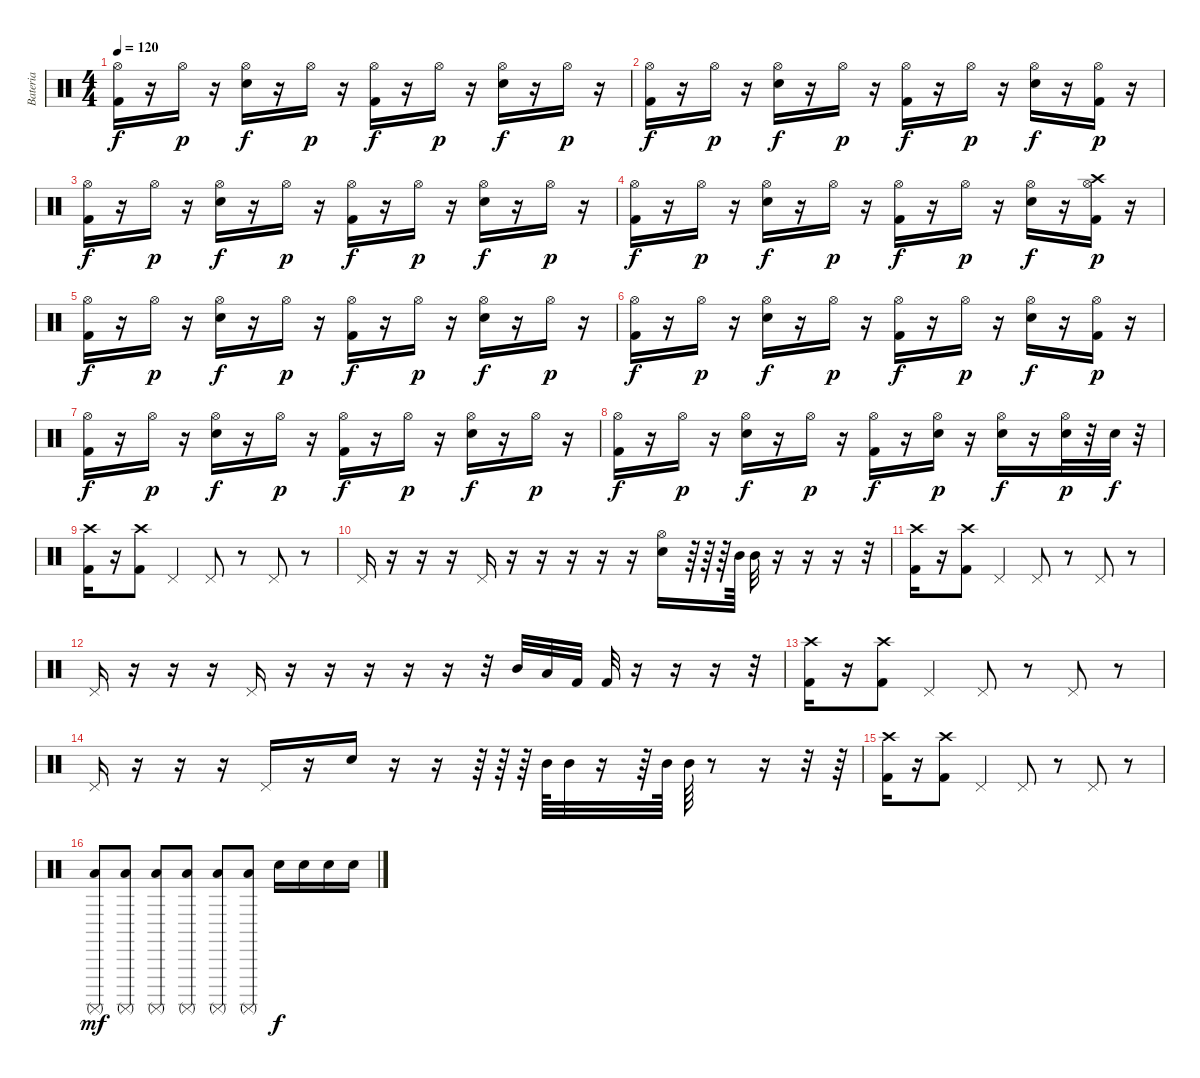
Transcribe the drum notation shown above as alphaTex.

\track ("Bateria" "Bateria") {instrument percussion}
\staff {score}
\articulation defaults
\ts (4 4)
\tempo 120
\clef neutral
\ks c
("Kick (hit) 2" "Hi-Hat (open)").16{dy f} r.16 "Hi-Hat (open)".16{dy p} r.16 ("Electric Snare (hit)" "Hi-Hat (open)").16{dy f} r.16 "Hi-Hat (open)".16{dy p} r.16 ("Kick (hit) 2" "Hi-Hat (open)").16{dy f} r.16 "Hi-Hat (open)".16{dy p} r.16 ("Electric Snare (hit)" "Hi-Hat (open)").16{dy f} r.16 "Hi-Hat (open)".16{dy p} r.16 |
("Kick (hit) 2" "Hi-Hat (open)").16{dy f} r.16 "Hi-Hat (open)".16{dy p} r.16 ("Electric Snare (hit)" "Hi-Hat (open)").16{dy f} r.16 "Hi-Hat (open)".16{dy p} r.16 ("Kick (hit) 2" "Hi-Hat (open)").16{dy f} r.16 "Hi-Hat (open)".16{dy p} r.16 ("Electric Snare (hit)" "Hi-Hat (open)").16{dy f} r.16 ("Kick (hit) 2" "Hi-Hat (open)").16{dy p} r.16 |
("Kick (hit) 2" "Hi-Hat (open)").16{dy f} r.16 "Hi-Hat (open)".16{dy p} r.16 ("Electric Snare (hit)" "Hi-Hat (open)").16{dy f} r.16 "Hi-Hat (open)".16{dy p} r.16 ("Kick (hit) 2" "Hi-Hat (open)").16{dy f} r.16 "Hi-Hat (open)".16{dy p} r.16 ("Electric Snare (hit)" "Hi-Hat (open)").16{dy f} r.16 "Hi-Hat (open)".16{dy p} r.16 |
("Kick (hit) 2" "Hi-Hat (open)").16{dy f} r.16 "Hi-Hat (open)".16{dy p} r.16 ("Electric Snare (hit)" "Hi-Hat (open)").16{dy f} r.16 "Hi-Hat (open)".16{dy p} r.16 ("Kick (hit) 2" "Hi-Hat (open)").16{dy f} r.16 "Hi-Hat (open)".16{dy p} r.16 ("Electric Snare (hit)" "Hi-Hat (open)").16{dy f} r.16 ("Kick (hit) 2" "Crash high (hit)" "Hi-Hat (open)").16{dy p} r.16 |
("Kick (hit) 2" "Hi-Hat (open)").16{dy f} r.16 "Hi-Hat (open)".16{dy p} r.16 ("Electric Snare (hit)" "Hi-Hat (open)").16{dy f} r.16 "Hi-Hat (open)".16{dy p} r.16 ("Kick (hit) 2" "Hi-Hat (open)").16{dy f} r.16 "Hi-Hat (open)".16{dy p} r.16 ("Electric Snare (hit)" "Hi-Hat (open)").16{dy f} r.16 "Hi-Hat (open)".16{dy p} r.16 |
("Kick (hit) 2" "Hi-Hat (open)").16{dy f} r.16 "Hi-Hat (open)".16{dy p} r.16 ("Electric Snare (hit)" "Hi-Hat (open)").16{dy f} r.16 "Hi-Hat (open)".16{dy p} r.16 ("Kick (hit) 2" "Hi-Hat (open)").16{dy f} r.16 "Hi-Hat (open)".16{dy p} r.16 ("Electric Snare (hit)" "Hi-Hat (open)").16{dy f} r.16 ("Kick (hit) 2" "Hi-Hat (open)").16{dy p} r.16 |
("Kick (hit) 2" "Hi-Hat (open)").16{dy f} r.16 "Hi-Hat (open)".16{dy p} r.16 ("Electric Snare (hit)" "Hi-Hat (open)").16{dy f} r.16 "Hi-Hat (open)".16{dy p} r.16 ("Kick (hit) 2" "Hi-Hat (open)").16{dy f} r.16 "Hi-Hat (open)".16{dy p} r.16 ("Electric Snare (hit)" "Hi-Hat (open)").16{dy f} r.16 "Hi-Hat (open)".16{dy p} r.16 |
("Kick (hit) 2" "Hi-Hat (open)").16{dy f} r.16 "Hi-Hat (open)".16{dy p} r.16 ("Electric Snare (hit)" "Hi-Hat (open)").16{dy f} r.16 "Hi-Hat (open)".16{dy p} r.16 ("Kick (hit) 2" "Hi-Hat (open)").16{dy f} r.16 ("Electric Snare (hit)" "Hi-Hat (open)").16{dy p} r.16 ("Electric Snare (hit)" "Hi-Hat (open)").16{dy f} r.16 ("Electric Snare (hit)" "Hi-Hat (open)").32{dy p} r.32 "Electric Snare (hit)".32{dy f} r.32 |
("Kick (hit) 2" "Crash high (hit)").16 r.16 ("Kick (hit) 2" "Crash high (hit)").8 "Pedal Hi-Hat (hit)".4 "Pedal Hi-Hat (hit)".8 r.8 "Pedal Hi-Hat (hit)".8 r.8 |
"Pedal Hi-Hat (hit)".16 r.16 r.16 r.16 "Pedal Hi-Hat (hit)".16 r.16 r.16 r.16 r.16 r.16 ("Hi-Hat (open)" "Electric Snare (hit)").16 r.64 r.64 r.64 "Mid Tom (hit)".64 "Mid Tom (hit)".32 r.16 r.16 r.16 r.32 |
("Kick (hit) 2" "Crash high (hit)").16 r.16 ("Kick (hit) 2" "Crash high (hit)").8 "Pedal Hi-Hat (hit)".4 "Pedal Hi-Hat (hit)".8 r.8 "Pedal Hi-Hat (hit)".8 r.8 |
"Pedal Hi-Hat (hit)".16 r.16 r.16 r.16 "Pedal Hi-Hat (hit)".16 r.16 r.16 r.16 r.16 r.16 r.32 "Mid Tom (hit)".32 "Low Tom (hit)".32 "Kick (hit) 2".32 "Kick (hit) 2".32 r.16 r.16 r.16 r.32 |
("Kick (hit) 2" "Crash high (hit)").16 r.16 ("Kick (hit) 2" "Crash high (hit)").8 "Pedal Hi-Hat (hit)".4 "Pedal Hi-Hat (hit)".8 r.8 "Pedal Hi-Hat (hit)".8 r.8 |
"Pedal Hi-Hat (hit)".16 r.16 r.16 r.16 "Pedal Hi-Hat (hit)".16 r.16 "Electric Snare (hit)".16 r.16 r.16 r.64 r.64 r.64 "Mid Tom (hit)".64 "Mid Tom (hit)".32 r.16 r.64 "Mid Tom (hit)".64 "Mid Tom (hit)".64 r.8 r.16 r.32 r.64 |
("Kick (hit) 2" "Crash high (hit)").16 r.16 ("Kick (hit) 2" "Crash high (hit)").8 "Pedal Hi-Hat (hit)".4 "Pedal Hi-Hat (hit)".8 r.8 "Pedal Hi-Hat (hit)".8 r.8 |
("Surdo (mute)" "Low Floor Tom (hit)").8{dy mf} ("Surdo (mute)" "Low Floor Tom (hit)").8 ("Surdo (mute)" "Low Floor Tom (hit)").8 ("Surdo (mute)" "Low Floor Tom (hit)").8 ("Surdo (mute)" "Low Floor Tom (hit)").8 ("Surdo (mute)" "Low Floor Tom (hit)").8 "Electric Snare (hit)".16{dy f} "Electric Snare (hit)".16 "Electric Snare (hit)".16 "Electric Snare (hit)".16
